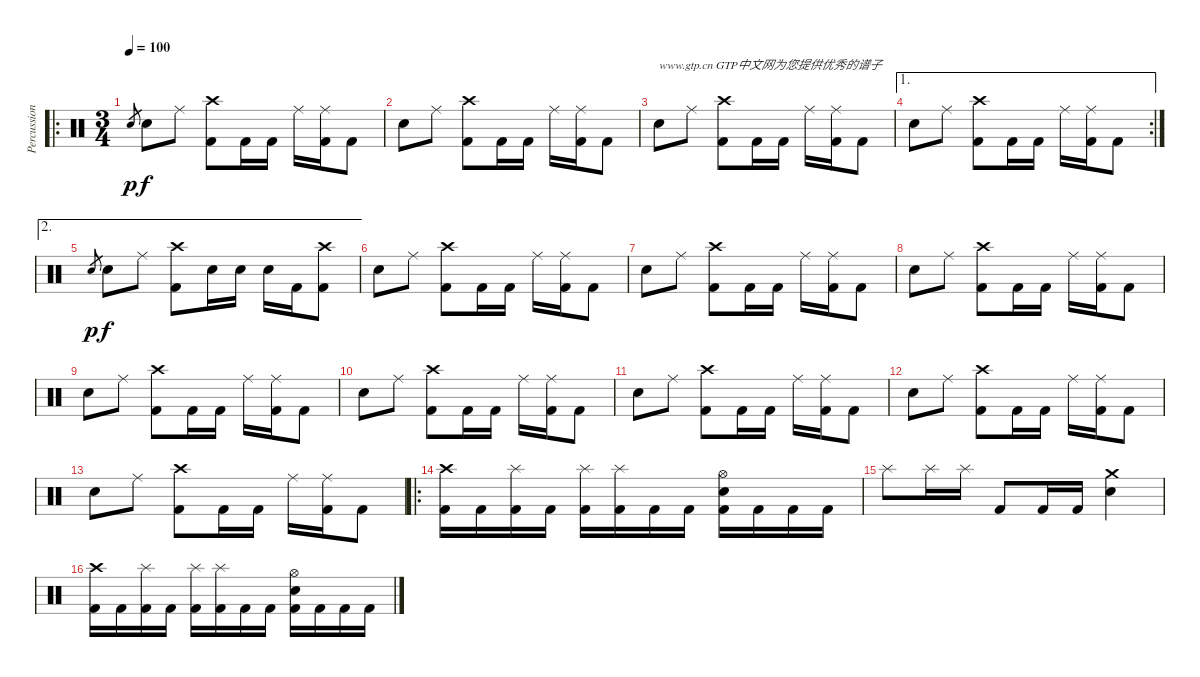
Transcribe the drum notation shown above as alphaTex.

\track ("Percussion" "Percussion") {instrument percussion}
\staff {score}
\articulation defaults
\ro
\ts (3 4)
\tempo 100
\tempo 140
\tempo 100
\clef neutral
\ks c "Electric Snare (hit)".8{gr dy p} "Electric Snare (hit)".8{dy f} "Ride (middle)".8
("Crash high (hit)" "Kick (hit) 2").8 "Kick (hit) 2".16 "Kick (hit) 2".16 "Ride (middle)".16 ("Ride (middle)" "Kick (hit) 2").16 "Kick (hit) 2".8 |
"Electric Snare (hit)".8 "Ride (middle)".8 ("Crash high (hit)" "Kick (hit) 2").8 "Kick (hit) 2".16 "Kick (hit) 2".16 "Ride (middle)".16 ("Ride (middle)" "Kick (hit) 2").16 "Kick (hit) 2".8 |
"Electric Snare (hit)".8{txt "www.gtp.cn GTP中文网为您提供优秀的谱子"} "Ride (middle)".8 ("Crash high (hit)" "Kick (hit) 2").8 "Kick (hit) 2".16 "Kick (hit) 2".16 "Ride (middle)".16 ("Ride (middle)" "Kick (hit) 2").16 "Kick (hit) 2".8 |
\ae 1
\rc 2 "Electric Snare (hit)".8 "Ride (middle)".8
("Crash high (hit)" "Kick (hit) 2").8 "Kick (hit) 2".16 "Kick (hit) 2".16 "Ride (middle)".16 ("Ride (middle)" "Kick (hit) 2").16 "Kick (hit) 2".8 |
\ae 2 "Electric Snare (hit)".8{gr dy p} "Electric Snare (hit)".8{dy f} "Ride (middle)".8
("Crash high (hit)" "Kick (hit) 2").8 "Electric Snare (hit)".16 "Electric Snare (hit)".16 "Electric Snare (hit)".16 "Kick (hit) 2".16 ("Crash high (hit)" "Kick (hit) 2").8 |
"Electric Snare (hit)".8 "Ride (middle)".8 ("Crash high (hit)" "Kick (hit) 2").8 "Kick (hit) 2".16 "Kick (hit) 2".16 "Ride (middle)".16 ("Ride (middle)" "Kick (hit) 2").16 "Kick (hit) 2".8 |
"Electric Snare (hit)".8 "Ride (middle)".8 ("Crash high (hit)" "Kick (hit) 2").8 "Kick (hit) 2".16 "Kick (hit) 2".16 "Ride (middle)".16 ("Ride (middle)" "Kick (hit) 2").16 "Kick (hit) 2".8 |
"Electric Snare (hit)".8 "Ride (middle)".8 ("Crash high (hit)" "Kick (hit) 2").8 "Kick (hit) 2".16 "Kick (hit) 2".16 "Ride (middle)".16 ("Ride (middle)" "Kick (hit) 2").16 "Kick (hit) 2".8 |
"Electric Snare (hit)".8 "Ride (middle)".8 ("Crash high (hit)" "Kick (hit) 2").8 "Kick (hit) 2".16 "Kick (hit) 2".16 "Ride (middle)".16 ("Ride (middle)" "Kick (hit) 2").16 "Kick (hit) 2".8 |
"Electric Snare (hit)".8 "Ride (middle)".8 ("Crash high (hit)" "Kick (hit) 2").8 "Kick (hit) 2".16 "Kick (hit) 2".16 "Ride (middle)".16 ("Ride (middle)" "Kick (hit) 2").16 "Kick (hit) 2".8 |
"Electric Snare (hit)".8 "Ride (middle)".8 ("Crash high (hit)" "Kick (hit) 2").8 "Kick (hit) 2".16 "Kick (hit) 2".16 "Ride (middle)".16 ("Ride (middle)" "Kick (hit) 2").16 "Kick (hit) 2".8 |
"Electric Snare (hit)".8 "Ride (middle)".8 ("Crash high (hit)" "Kick (hit) 2").8 "Kick (hit) 2".16 "Kick (hit) 2".16 "Ride (middle)".16 ("Ride (middle)" "Kick (hit) 2").16 "Kick (hit) 2".8 |
"Electric Snare (hit)".8 "Ride (middle)".8 ("Crash high (hit)" "Kick (hit) 2").8 "Kick (hit) 2".16 "Kick (hit) 2".16 "Ride (middle)".16 ("Ride (middle)" "Kick (hit) 2").16 "Kick (hit) 2".8 |
\ro
("Crash high (hit)" "Kick (hit) 2").16 "Kick (hit) 2".16 ("Splash (hit)" "Kick (hit) 2").16 "Kick (hit) 2".16 ("Splash (hit)" "Kick (hit) 2").16 ("Splash (hit)" "Kick (hit) 2").16 "Kick (hit) 2".16 "Kick (hit) 2".16 ("Hi-Hat (open)" "Electric Snare (hit)" "Kick (hit) 2").16 "Kick (hit) 2".16 "Kick (hit) 2".16 "Kick (hit) 2".16 |
"Splash (hit)".8 "Splash (hit)".16 "Splash (hit)".16 "Kick (hit) 2".8 "Kick (hit) 2".16 "Kick (hit) 2".16 ("Crash medium (hit)" "Electric Snare (hit)").4 |
("Crash high (hit)" "Kick (hit) 2").16 "Kick (hit) 2".16 ("Splash (hit)" "Kick (hit) 2").16 "Kick (hit) 2".16 ("Splash (hit)" "Kick (hit) 2").16 ("Splash (hit)" "Kick (hit) 2").16 "Kick (hit) 2".16 "Kick (hit) 2".16 ("Hi-Hat (open)" "Electric Snare (hit)" "Kick (hit) 2").16 "Kick (hit) 2".16 "Kick (hit) 2".16 "Kick (hit) 2".16
